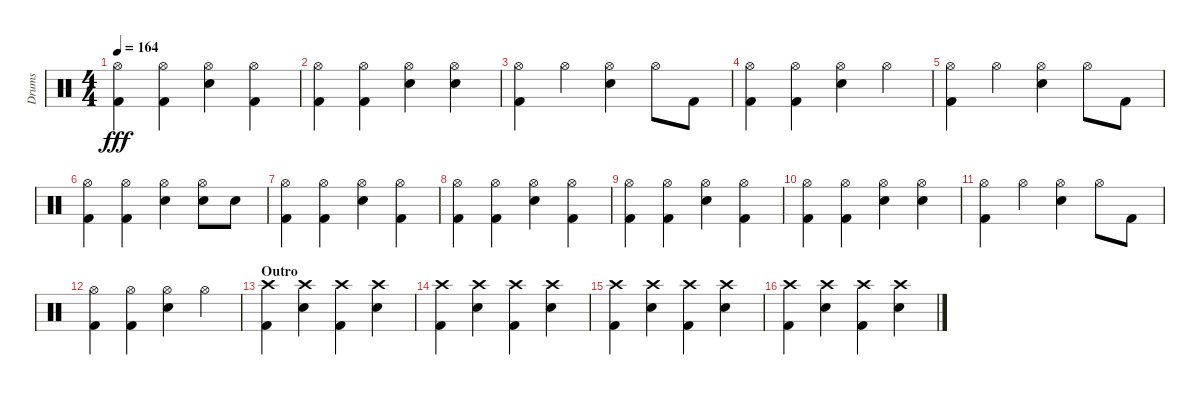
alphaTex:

\track ("Drums" "Drums") {instrument percussion}
\staff {score}
\articulation defaults
\ts (4 4)
\tempo 164
\clef neutral
\ks c
("Hi-Hat (open)" "Kick (hit) 2").4{dy fff} ("Hi-Hat (open)" "Kick (hit) 2").4 ("Hi-Hat (open)" "Electric Snare (hit)").4 ("Hi-Hat (open)" "Kick (hit) 2").4 |
("Hi-Hat (open)" "Kick (hit) 2").4 ("Hi-Hat (open)" "Kick (hit) 2").4 ("Hi-Hat (open)" "Electric Snare (hit)").4 ("Hi-Hat (open)" "Electric Snare (hit)").4 |
("Hi-Hat (open)" "Kick (hit) 2").4 "Hi-Hat (open)".4 ("Hi-Hat (open)" "Electric Snare (hit)").4 "Hi-Hat (open)".8 "Kick (hit) 2".8 |
("Hi-Hat (open)" "Kick (hit) 2").4 ("Hi-Hat (open)" "Kick (hit) 2").4 ("Hi-Hat (open)" "Electric Snare (hit)").4 "Hi-Hat (open)".4 |
("Hi-Hat (open)" "Kick (hit) 2").4 "Hi-Hat (open)".4 ("Hi-Hat (open)" "Electric Snare (hit)").4 "Hi-Hat (open)".8 "Kick (hit) 2".8 |
("Hi-Hat (open)" "Kick (hit) 2").4 ("Hi-Hat (open)" "Kick (hit) 2").4 ("Hi-Hat (open)" "Electric Snare (hit)").4 ("Hi-Hat (open)" "Electric Snare (hit)").8 "Electric Snare (hit)".8 |
("Hi-Hat (open)" "Kick (hit) 2").4 ("Hi-Hat (open)" "Kick (hit) 2").4 ("Hi-Hat (open)" "Electric Snare (hit)").4 ("Hi-Hat (open)" "Kick (hit) 2").4 |
("Hi-Hat (open)" "Kick (hit) 2").4 ("Hi-Hat (open)" "Kick (hit) 2").4 ("Hi-Hat (open)" "Electric Snare (hit)").4 ("Hi-Hat (open)" "Kick (hit) 2").4 |
("Hi-Hat (open)" "Kick (hit) 2").4 ("Hi-Hat (open)" "Kick (hit) 2").4 ("Hi-Hat (open)" "Electric Snare (hit)").4 ("Hi-Hat (open)" "Kick (hit) 2").4 |
("Hi-Hat (open)" "Kick (hit) 2").4 ("Hi-Hat (open)" "Kick (hit) 2").4 ("Hi-Hat (open)" "Electric Snare (hit)").4 ("Hi-Hat (open)" "Electric Snare (hit)").4 |
("Hi-Hat (open)" "Kick (hit) 2").4 "Hi-Hat (open)".4 ("Hi-Hat (open)" "Electric Snare (hit)").4 "Hi-Hat (open)".8 "Kick (hit) 2".8 |
("Hi-Hat (open)" "Kick (hit) 2").4 ("Hi-Hat (open)" "Kick (hit) 2").4 ("Hi-Hat (open)" "Electric Snare (hit)").4 "Hi-Hat (open)".4 |
\section ("" "Outro")
("Crash high (hit)" "Kick (hit) 2").4 ("Crash high (hit)" "Electric Snare (hit)").4 ("Crash high (hit)" "Kick (hit) 2").4 ("Crash high (hit)" "Electric Snare (hit)").4 |
("Crash high (hit)" "Kick (hit) 2").4 ("Crash high (hit)" "Electric Snare (hit)").4 ("Crash high (hit)" "Kick (hit) 2").4 ("Crash high (hit)" "Electric Snare (hit)").4 |
("Crash high (hit)" "Kick (hit) 2").4 ("Crash high (hit)" "Electric Snare (hit)").4 ("Crash high (hit)" "Kick (hit) 2").4 ("Crash high (hit)" "Electric Snare (hit)").4 |
("Crash high (hit)" "Kick (hit) 2").4 ("Crash high (hit)" "Electric Snare (hit)").4 ("Crash high (hit)" "Kick (hit) 2").4 ("Crash high (hit)" "Electric Snare (hit)").4
